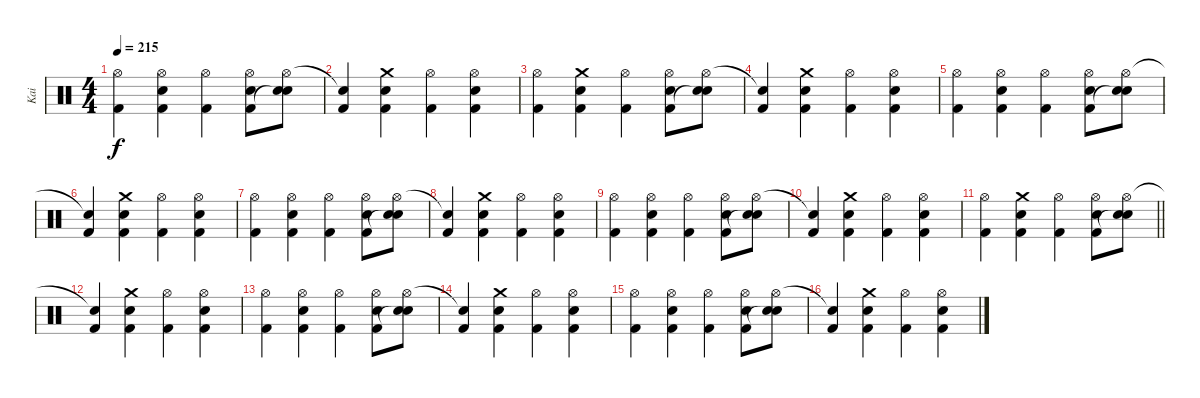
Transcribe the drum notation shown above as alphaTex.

\track ("Kai" "Kai") {instrument percussion}
\staff {score}
\articulation defaults
\ts (4 4)
\tempo 215
\clef neutral
\ks c
("Hi-Hat (open)" "Kick (hit) 2").4{dy f} ("Hi-Hat (open)" "Snare (hit) 2" "Kick (hit) 2").4 ("Hi-Hat (open)" "Kick (hit) 2").4 ("Hi-Hat (open)" "Snare (hit) 2" "Kick (hit) 2").8 ("Hi-Hat (open)" "Snare (hit) 2" "Snare (hit)"{t}).8 |
("Snare (hit)"{t} "Kick (hit) 2").4 ("Crash medium (hit)" "Snare (hit) 2" "Kick (hit) 2").4 ("Hi-Hat (open)" "Kick (hit) 2").4 ("Hi-Hat (open)" "Snare (hit) 2" "Kick (hit) 2").4 |
("Hi-Hat (open)" "Kick (hit) 2").4 ("Crash medium (hit)" "Snare (hit) 2" "Kick (hit) 2").4 ("Hi-Hat (open)" "Kick (hit) 2").4 ("Hi-Hat (open)" "Snare (hit) 2" "Kick (hit) 2").8 ("Hi-Hat (open)" "Snare (hit) 2" "Snare (hit)"{t}).8 |
("Snare (hit)"{t} "Kick (hit) 2").4 ("Crash medium (hit)" "Snare (hit) 2" "Kick (hit) 2").4 ("Hi-Hat (open)" "Kick (hit) 2").4 ("Hi-Hat (open)" "Snare (hit) 2" "Kick (hit) 2").4 |
("Hi-Hat (open)" "Kick (hit) 2").4 ("Hi-Hat (open)" "Snare (hit) 2" "Kick (hit) 2").4 ("Hi-Hat (open)" "Kick (hit) 2").4 ("Hi-Hat (open)" "Snare (hit) 2" "Kick (hit) 2").8 ("Hi-Hat (open)" "Snare (hit) 2" "Snare (hit)"{t}).8 |
("Snare (hit)"{t} "Kick (hit) 2").4 ("Crash medium (hit)" "Snare (hit) 2" "Kick (hit) 2").4 ("Hi-Hat (open)" "Kick (hit) 2").4 ("Hi-Hat (open)" "Snare (hit) 2" "Kick (hit) 2").4 |
("Hi-Hat (open)" "Kick (hit) 2").4 ("Hi-Hat (open)" "Snare (hit) 2" "Kick (hit) 2").4 ("Hi-Hat (open)" "Kick (hit) 2").4 ("Hi-Hat (open)" "Snare (hit) 2" "Kick (hit) 2").8 ("Hi-Hat (open)" "Snare (hit) 2" "Snare (hit)"{t}).8 |
("Snare (hit)"{t} "Kick (hit) 2").4 ("Crash medium (hit)" "Snare (hit) 2" "Kick (hit) 2").4 ("Hi-Hat (open)" "Kick (hit) 2").4 ("Hi-Hat (open)" "Snare (hit) 2" "Kick (hit) 2").4 |
("Hi-Hat (open)" "Kick (hit) 2").4 ("Hi-Hat (open)" "Snare (hit) 2" "Kick (hit) 2").4 ("Hi-Hat (open)" "Kick (hit) 2").4 ("Hi-Hat (open)" "Snare (hit) 2" "Kick (hit) 2").8 ("Hi-Hat (open)" "Snare (hit) 2" "Snare (hit)"{t}).8 |
("Snare (hit)"{t} "Kick (hit) 2").4 ("Crash medium (hit)" "Snare (hit) 2" "Kick (hit) 2").4 ("Hi-Hat (open)" "Kick (hit) 2").4 ("Hi-Hat (open)" "Snare (hit) 2" "Kick (hit) 2").4 |
\barLineRight lightlight
("Hi-Hat (open)" "Kick (hit) 2").4 ("Crash medium (hit)" "Snare (hit) 2" "Kick (hit) 2").4 ("Hi-Hat (open)" "Kick (hit) 2").4 ("Hi-Hat (open)" "Snare (hit) 2" "Kick (hit) 2").8 ("Hi-Hat (open)" "Snare (hit) 2" "Snare (hit)"{t}).8 |
("Snare (hit)"{t} "Kick (hit) 2").4 ("Crash medium (hit)" "Snare (hit) 2" "Kick (hit) 2").4 ("Hi-Hat (open)" "Kick (hit) 2").4 ("Hi-Hat (open)" "Snare (hit) 2" "Kick (hit) 2").4 |
("Hi-Hat (open)" "Kick (hit) 2").4 ("Hi-Hat (open)" "Snare (hit) 2" "Kick (hit) 2").4 ("Hi-Hat (open)" "Kick (hit) 2").4 ("Hi-Hat (open)" "Snare (hit) 2" "Kick (hit) 2").8 ("Hi-Hat (open)" "Snare (hit) 2" "Snare (hit)"{t}).8 |
("Snare (hit)"{t} "Kick (hit) 2").4 ("Crash medium (hit)" "Snare (hit) 2" "Kick (hit) 2").4 ("Hi-Hat (open)" "Kick (hit) 2").4 ("Hi-Hat (open)" "Snare (hit) 2" "Kick (hit) 2").4 |
("Hi-Hat (open)" "Kick (hit) 2").4 ("Hi-Hat (open)" "Snare (hit) 2" "Kick (hit) 2").4 ("Hi-Hat (open)" "Kick (hit) 2").4 ("Hi-Hat (open)" "Snare (hit) 2" "Kick (hit) 2").8 ("Hi-Hat (open)" "Snare (hit) 2" "Snare (hit)"{t}).8 |
("Snare (hit)"{t} "Kick (hit) 2").4 ("Crash medium (hit)" "Snare (hit) 2" "Kick (hit) 2").4 ("Hi-Hat (open)" "Kick (hit) 2").4 ("Hi-Hat (open)" "Snare (hit) 2" "Kick (hit) 2").4
